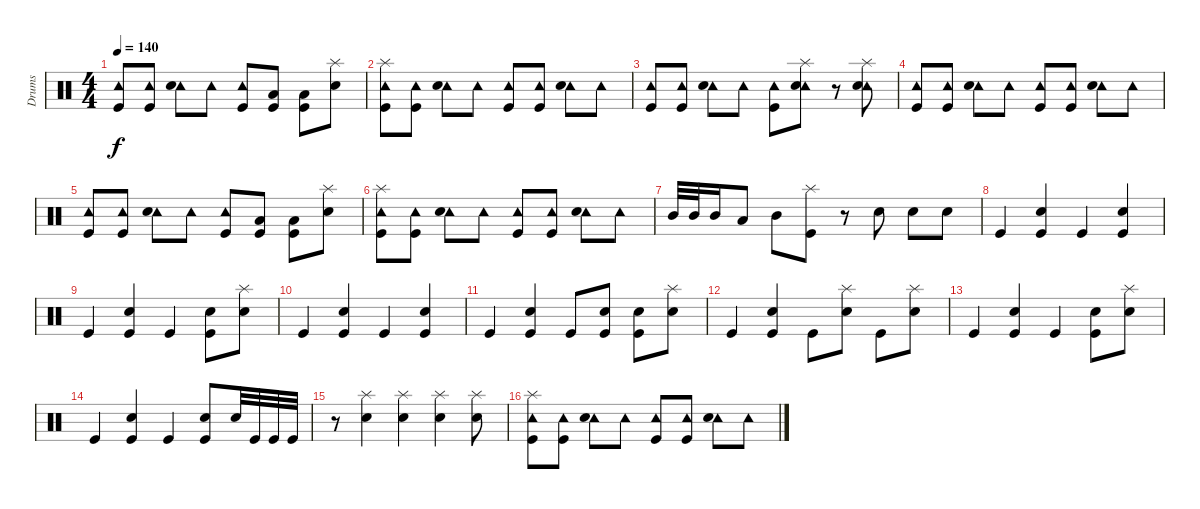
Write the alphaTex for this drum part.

\track ("Drums" "Drums") {instrument percussion}
\staff {score}
\articulation defaults
\ts (4 4)
\tempo 140
\clef neutral
\ks c
("Tambourine (hit)" "Kick (hit)").8{dy f} ("Tambourine (hit)" "Kick (hit)").8 ("Tambourine (hit)" "Snare (hit) 2").8 "Tambourine (hit)".8 ("Tambourine (hit)" "Kick (hit)").8 ("Kick (hit)" "Low Tom (hit)").8 ("Kick (hit)" "Low Tom (hit)").8 ("Snare (hit) 2" "Splash (hit)").8 |
("Tambourine (hit)" "Kick (hit)" "Splash (hit)").8 ("Tambourine (hit)" "Kick (hit)").8 ("Tambourine (hit)" "Snare (hit) 2").8 "Tambourine (hit)".8 ("Tambourine (hit)" "Kick (hit)").8 ("Tambourine (hit)" "Kick (hit)").8 ("Tambourine (hit)" "Snare (hit) 2").8 "Tambourine (hit)".8 |
("Tambourine (hit)" "Kick (hit)").8 ("Tambourine (hit)" "Kick (hit)").8 ("Tambourine (hit)" "Snare (hit) 2").8 "Tambourine (hit)".8 ("Tambourine (hit)" "Kick (hit)").8 ("Tambourine (hit)" "Snare (hit) 2" "Splash (hit)").8 r.8 ("Tambourine (hit)" "Snare (hit) 2" "Splash (hit)").8 |
("Tambourine (hit)" "Kick (hit)").8 ("Tambourine (hit)" "Kick (hit)").8 ("Tambourine (hit)" "Snare (hit) 2").8 "Tambourine (hit)".8 ("Tambourine (hit)" "Kick (hit)").8 ("Tambourine (hit)" "Kick (hit)").8 ("Tambourine (hit)" "Snare (hit) 2").8 "Tambourine (hit)".8 |
("Tambourine (hit)" "Kick (hit)").8 ("Tambourine (hit)" "Kick (hit)").8 ("Tambourine (hit)" "Snare (hit) 2").8 "Tambourine (hit)".8 ("Tambourine (hit)" "Kick (hit)").8 ("Kick (hit)" "Low Tom (hit)").8 ("Kick (hit)" "Low Tom (hit)").8 ("Snare (hit) 2" "Splash (hit)").8 |
("Tambourine (hit)" "Kick (hit)" "Splash (hit)").8 ("Tambourine (hit)" "Kick (hit)").8 ("Tambourine (hit)" "Snare (hit) 2").8 "Tambourine (hit)".8 ("Tambourine (hit)" "Kick (hit)").8 ("Tambourine (hit)" "Kick (hit)").8 ("Tambourine (hit)" "Snare (hit) 2").8 "Tambourine (hit)".8 |
"Mid Tom (hit)".32 "Mid Tom (hit)".32 "Mid Tom (hit)".16 "Low Tom (hit)".8 "Mid Tom (hit)".8 ("Kick (hit)" "Splash (hit)").8 r.8 "Snare (hit) 2".8 "Snare (hit) 2".8 "Snare (hit) 2".8 |
"Kick (hit)".4 ("Snare (hit) 2" "Kick (hit)").4 "Kick (hit)".4 ("Snare (hit) 2" "Kick (hit)").4 |
"Kick (hit)".4 ("Snare (hit) 2" "Kick (hit)").4 "Kick (hit)".4 ("Snare (hit) 2" "Kick (hit)").8 ("Snare (hit) 2" "Splash (hit)").8 |
"Kick (hit)".4 ("Snare (hit) 2" "Kick (hit)").4 "Kick (hit)".4 ("Snare (hit) 2" "Kick (hit)").4 |
"Kick (hit)".4 ("Snare (hit) 2" "Kick (hit)").4 "Kick (hit)".8 ("Snare (hit) 2" "Kick (hit)").8 ("Snare (hit) 2" "Kick (hit)").8 ("Snare (hit) 2" "Splash (hit)").8 |
"Kick (hit)".4 ("Snare (hit) 2" "Kick (hit)").4 "Kick (hit)".8 ("Snare (hit) 2" "Splash (hit)").8 "Kick (hit)".8 ("Snare (hit) 2" "Splash (hit)").8 |
"Kick (hit)".4 ("Snare (hit) 2" "Kick (hit)").4 "Kick (hit)".4 ("Snare (hit) 2" "Kick (hit)").8 ("Snare (hit) 2" "Splash (hit)").8 |
"Kick (hit)".4 ("Snare (hit) 2" "Kick (hit)").4 "Kick (hit)".4 ("Snare (hit) 2" "Kick (hit)").8 "Snare (hit) 2".32 "Kick (hit)".32 "Kick (hit)".32 "Kick (hit)".32 |
r.8 ("Snare (hit) 2" "Splash (hit)").4 ("Snare (hit) 2" "Splash (hit)").4 ("Snare (hit) 2" "Splash (hit)").4 ("Snare (hit) 2" "Splash (hit)").8 |
("Tambourine (hit)" "Kick (hit)" "Splash (hit)").8 ("Tambourine (hit)" "Kick (hit)").8 ("Tambourine (hit)" "Snare (hit) 2").8 "Tambourine (hit)".8 ("Tambourine (hit)" "Kick (hit)").8 ("Tambourine (hit)" "Kick (hit)").8 ("Tambourine (hit)" "Snare (hit) 2").8 "Tambourine (hit)".8
